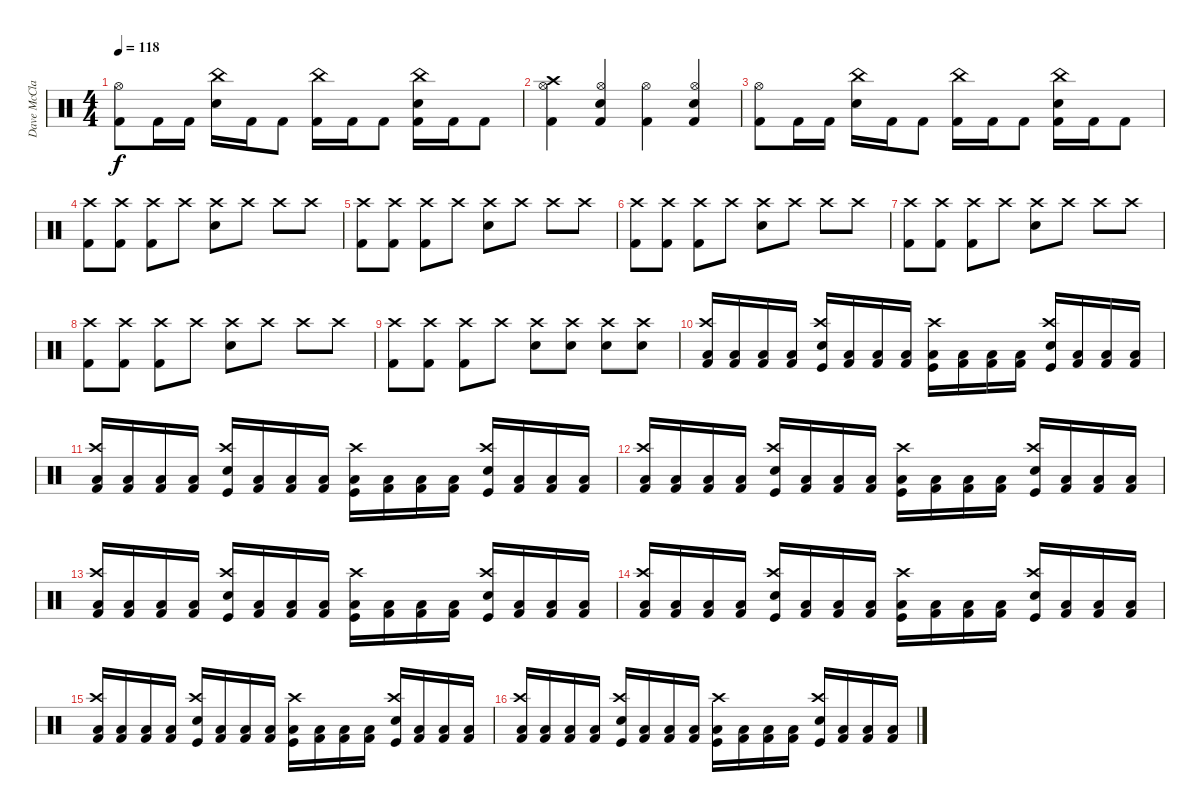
\track ("Dave McClain" "Dave McCla") {instrument percussion}
\staff {score}
\articulation defaults
\ts (4 4)
\tempo 118
\clef neutral
\ks c
("Kick (hit) 2" "Hi-Hat (open)").8{dy f} "Kick (hit) 2".16 "Kick (hit) 2".16 ("Snare (hit) 2" "China (hit)").16 "Kick (hit) 2".16 "Kick (hit) 2".8 ("Kick (hit) 2" "China (hit)").16 "Kick (hit) 2".16 "Kick (hit) 2".8 ("Kick (hit) 2" "Snare (hit) 2" "China (hit)").16 "Kick (hit) 2".16 "Kick (hit) 2".8 |
("Kick (hit) 2" "Hi-Hat (open)" "Crash high (hit)").4 ("Kick (hit) 2" "Snare (hit) 2" "Hi-Hat (open)").4 ("Kick (hit) 2" "Hi-Hat (open)").4 ("Kick (hit) 2" "Snare (hit) 2" "Hi-Hat (open)").4 |
("Kick (hit) 2" "Hi-Hat (open)").8 "Kick (hit) 2".16 "Kick (hit) 2".16 ("Snare (hit) 2" "China (hit)").16 "Kick (hit) 2".16 "Kick (hit) 2".8 ("Kick (hit) 2" "China (hit)").16 "Kick (hit) 2".16 "Kick (hit) 2".8 ("Kick (hit) 2" "Snare (hit) 2" "China (hit)").16 "Kick (hit) 2".16 "Kick (hit) 2".8 |
("Kick (hit) 2" "Crash high (hit)").8 ("Kick (hit) 2" "Crash high (hit)").8 ("Kick (hit) 2" "Crash high (hit)").8 "Crash high (hit)".8 ("Snare (hit) 2" "Crash high (hit)").8 "Crash high (hit)".8 "Crash high (hit)".8 "Crash high (hit)".8 |
("Kick (hit) 2" "Crash high (hit)").8 ("Kick (hit) 2" "Crash high (hit)").8 ("Kick (hit) 2" "Crash high (hit)").8 "Crash high (hit)".8 ("Snare (hit) 2" "Crash high (hit)").8 "Crash high (hit)".8 "Crash high (hit)".8 "Crash high (hit)".8 |
("Kick (hit) 2" "Crash high (hit)").8 ("Kick (hit) 2" "Crash high (hit)").8 ("Kick (hit) 2" "Crash high (hit)").8 "Crash high (hit)".8 ("Snare (hit) 2" "Crash high (hit)").8 "Crash high (hit)".8 "Crash high (hit)".8 "Crash high (hit)".8 |
("Kick (hit) 2" "Crash high (hit)").8 ("Kick (hit) 2" "Crash high (hit)").8 ("Kick (hit) 2" "Crash high (hit)").8 "Crash high (hit)".8 ("Snare (hit) 2" "Crash high (hit)").8 "Crash high (hit)".8 "Crash high (hit)".8 "Crash high (hit)".8 |
("Kick (hit) 2" "Crash high (hit)").8 ("Kick (hit) 2" "Crash high (hit)").8 ("Kick (hit) 2" "Crash high (hit)").8 "Crash high (hit)".8 ("Snare (hit) 2" "Crash high (hit)").8 "Crash high (hit)".8 "Crash high (hit)".8 "Crash high (hit)".8 |
("Kick (hit) 2" "Crash high (hit)").8 ("Kick (hit) 2" "Crash high (hit)").8 ("Kick (hit) 2" "Crash high (hit)").8 "Crash high (hit)".8 ("Snare (hit) 2" "Crash high (hit)").8 ("Snare (hit) 2" "Crash high (hit)").8 ("Snare (hit) 2" "Crash high (hit)").8 ("Snare (hit) 2" "Crash high (hit)").8 |
("Kick (hit) 2" "Low Floor Tom (hit)" "Crash high (hit)").16 ("Kick (hit) 2" "Low Floor Tom (hit)").16 ("Kick (hit) 2" "Low Floor Tom (hit)").16 ("Kick (hit) 2" "Low Floor Tom (hit)").16 ("Kick (hit)" "Snare (hit) 2" "Crash high (hit)").16 ("Kick (hit) 2" "Low Floor Tom (hit)").16 ("Kick (hit) 2" "Low Floor Tom (hit)").16 ("Kick (hit) 2" "Low Floor Tom (hit)").16 ("Kick (hit)" "Low Floor Tom (hit)" "Crash high (hit)").16 ("Kick (hit) 2" "Low Floor Tom (hit)").16 ("Kick (hit) 2" "Low Floor Tom (hit)").16 ("Kick (hit) 2" "Low Floor Tom (hit)").16 ("Kick (hit)" "Snare (hit) 2" "Crash high (hit)").16 ("Kick (hit) 2" "Low Floor Tom (hit)").16 ("Kick (hit) 2" "Low Floor Tom (hit)").16 ("Kick (hit) 2" "Low Floor Tom (hit)").16 |
("Kick (hit) 2" "Low Floor Tom (hit)" "Crash high (hit)").16 ("Kick (hit) 2" "Low Floor Tom (hit)").16 ("Kick (hit) 2" "Low Floor Tom (hit)").16 ("Kick (hit) 2" "Low Floor Tom (hit)").16 ("Kick (hit)" "Snare (hit) 2" "Crash high (hit)").16 ("Kick (hit) 2" "Low Floor Tom (hit)").16 ("Kick (hit) 2" "Low Floor Tom (hit)").16 ("Kick (hit) 2" "Low Floor Tom (hit)").16 ("Kick (hit)" "Low Floor Tom (hit)" "Crash high (hit)").16 ("Kick (hit) 2" "Low Floor Tom (hit)").16 ("Kick (hit) 2" "Low Floor Tom (hit)").16 ("Kick (hit) 2" "Low Floor Tom (hit)").16 ("Kick (hit)" "Snare (hit) 2" "Crash high (hit)").16 ("Kick (hit) 2" "Low Floor Tom (hit)").16 ("Kick (hit) 2" "Low Floor Tom (hit)").16 ("Kick (hit) 2" "Low Floor Tom (hit)").16 |
("Kick (hit) 2" "Low Floor Tom (hit)" "Crash high (hit)").16 ("Kick (hit) 2" "Low Floor Tom (hit)").16 ("Kick (hit) 2" "Low Floor Tom (hit)").16 ("Kick (hit) 2" "Low Floor Tom (hit)").16 ("Kick (hit)" "Snare (hit) 2" "Crash high (hit)").16 ("Kick (hit) 2" "Low Floor Tom (hit)").16 ("Kick (hit) 2" "Low Floor Tom (hit)").16 ("Kick (hit) 2" "Low Floor Tom (hit)").16 ("Kick (hit)" "Low Floor Tom (hit)" "Crash high (hit)").16 ("Kick (hit) 2" "Low Floor Tom (hit)").16 ("Kick (hit) 2" "Low Floor Tom (hit)").16 ("Kick (hit) 2" "Low Floor Tom (hit)").16 ("Kick (hit)" "Snare (hit) 2" "Crash high (hit)").16 ("Kick (hit) 2" "Low Floor Tom (hit)").16 ("Kick (hit) 2" "Low Floor Tom (hit)").16 ("Kick (hit) 2" "Low Floor Tom (hit)").16 |
("Kick (hit) 2" "Low Floor Tom (hit)" "Crash high (hit)").16 ("Kick (hit) 2" "Low Floor Tom (hit)").16 ("Kick (hit) 2" "Low Floor Tom (hit)").16 ("Kick (hit) 2" "Low Floor Tom (hit)").16 ("Kick (hit)" "Snare (hit) 2" "Crash high (hit)").16 ("Kick (hit) 2" "Low Floor Tom (hit)").16 ("Kick (hit) 2" "Low Floor Tom (hit)").16 ("Kick (hit) 2" "Low Floor Tom (hit)").16 ("Kick (hit)" "Low Floor Tom (hit)" "Crash high (hit)").16 ("Kick (hit) 2" "Low Floor Tom (hit)").16 ("Kick (hit) 2" "Low Floor Tom (hit)").16 ("Kick (hit) 2" "Low Floor Tom (hit)").16 ("Kick (hit)" "Snare (hit) 2" "Crash high (hit)").16 ("Kick (hit) 2" "Low Floor Tom (hit)").16 ("Kick (hit) 2" "Low Floor Tom (hit)").16 ("Kick (hit) 2" "Low Floor Tom (hit)").16 |
("Kick (hit) 2" "Low Floor Tom (hit)" "Crash high (hit)").16 ("Kick (hit) 2" "Low Floor Tom (hit)").16 ("Kick (hit) 2" "Low Floor Tom (hit)").16 ("Kick (hit) 2" "Low Floor Tom (hit)").16 ("Kick (hit)" "Snare (hit) 2" "Crash high (hit)").16 ("Kick (hit) 2" "Low Floor Tom (hit)").16 ("Kick (hit) 2" "Low Floor Tom (hit)").16 ("Kick (hit) 2" "Low Floor Tom (hit)").16 ("Kick (hit)" "Low Floor Tom (hit)" "Crash high (hit)").16 ("Kick (hit) 2" "Low Floor Tom (hit)").16 ("Kick (hit) 2" "Low Floor Tom (hit)").16 ("Kick (hit) 2" "Low Floor Tom (hit)").16 ("Kick (hit)" "Snare (hit) 2" "Crash high (hit)").16 ("Kick (hit) 2" "Low Floor Tom (hit)").16 ("Kick (hit) 2" "Low Floor Tom (hit)").16 ("Kick (hit) 2" "Low Floor Tom (hit)").16 |
("Kick (hit) 2" "Low Floor Tom (hit)" "Crash high (hit)").16 ("Kick (hit) 2" "Low Floor Tom (hit)").16 ("Kick (hit) 2" "Low Floor Tom (hit)").16 ("Kick (hit) 2" "Low Floor Tom (hit)").16 ("Kick (hit)" "Snare (hit) 2" "Crash high (hit)").16 ("Kick (hit) 2" "Low Floor Tom (hit)").16 ("Kick (hit) 2" "Low Floor Tom (hit)").16 ("Kick (hit) 2" "Low Floor Tom (hit)").16 ("Kick (hit)" "Low Floor Tom (hit)" "Crash high (hit)").16 ("Kick (hit) 2" "Low Floor Tom (hit)").16 ("Kick (hit) 2" "Low Floor Tom (hit)").16 ("Kick (hit) 2" "Low Floor Tom (hit)").16 ("Kick (hit)" "Snare (hit) 2" "Crash high (hit)").16 ("Kick (hit) 2" "Low Floor Tom (hit)").16 ("Kick (hit) 2" "Low Floor Tom (hit)").16 ("Kick (hit) 2" "Low Floor Tom (hit)").16 |
("Kick (hit) 2" "Low Floor Tom (hit)" "Crash high (hit)").16 ("Kick (hit) 2" "Low Floor Tom (hit)").16 ("Kick (hit) 2" "Low Floor Tom (hit)").16 ("Kick (hit) 2" "Low Floor Tom (hit)").16 ("Kick (hit)" "Snare (hit) 2" "Crash high (hit)").16 ("Kick (hit) 2" "Low Floor Tom (hit)").16 ("Kick (hit) 2" "Low Floor Tom (hit)").16 ("Kick (hit) 2" "Low Floor Tom (hit)").16 ("Kick (hit)" "Low Floor Tom (hit)" "Crash high (hit)").16 ("Kick (hit) 2" "Low Floor Tom (hit)").16 ("Kick (hit) 2" "Low Floor Tom (hit)").16 ("Kick (hit) 2" "Low Floor Tom (hit)").16 ("Kick (hit)" "Snare (hit) 2" "Crash high (hit)").16 ("Kick (hit) 2" "Low Floor Tom (hit)").16 ("Kick (hit) 2" "Low Floor Tom (hit)").16 ("Kick (hit) 2" "Low Floor Tom (hit)").16
